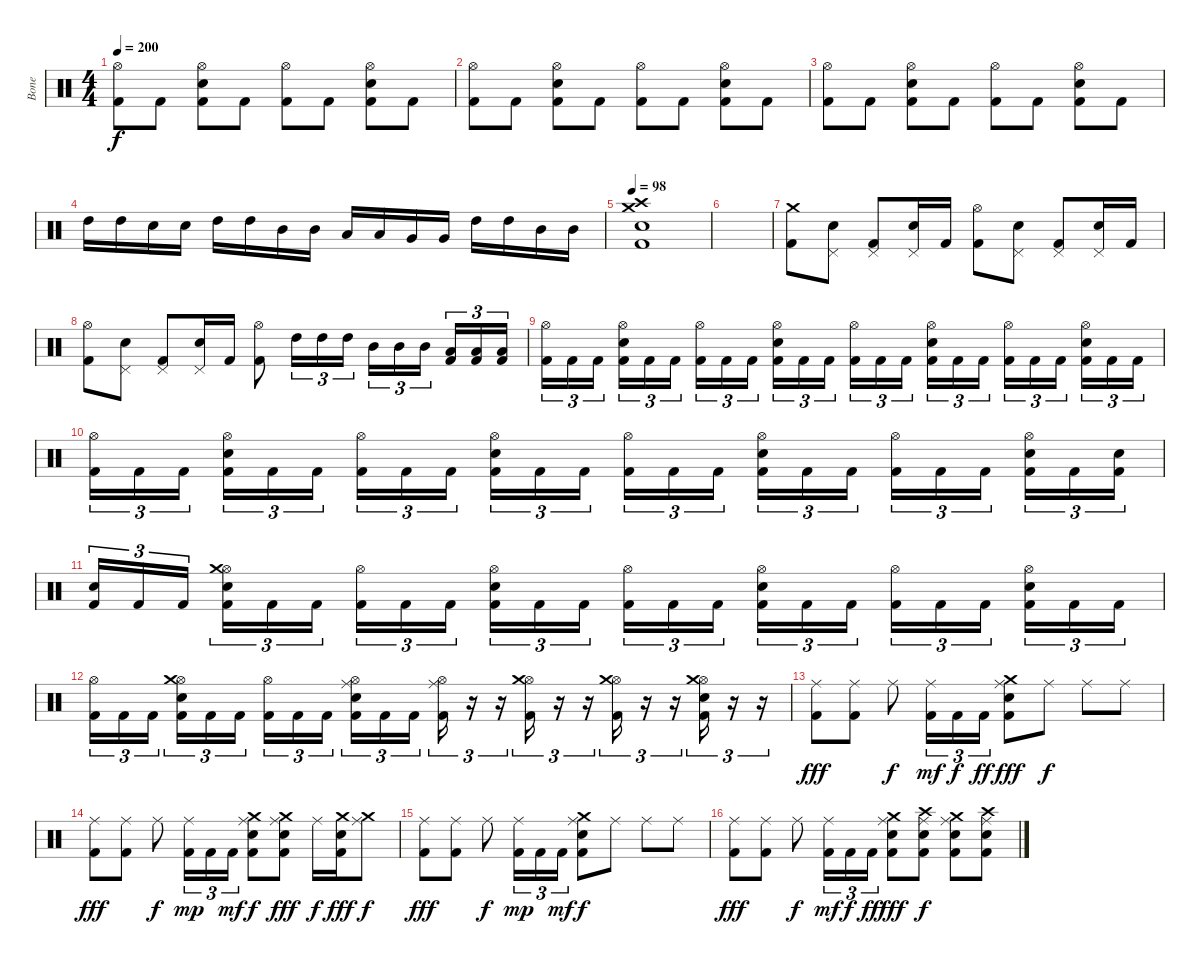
\track ("Bone " "Bone ") {instrument percussion}
\staff {score}
\articulation defaults
\ts (4 4)
\tempo 200
\clef neutral
\ks c
("Hi-Hat (open)" "Kick (hit) 2").8{dy f} "Kick (hit) 2".8 ("Hi-Hat (open)" "Electric Snare (hit)" "Kick (hit) 2").8 "Kick (hit) 2".8 ("Hi-Hat (open)" "Kick (hit) 2").8 "Kick (hit) 2".8 ("Hi-Hat (open)" "Electric Snare (hit)" "Kick (hit) 2").8 "Kick (hit) 2".8 |
("Hi-Hat (open)" "Kick (hit) 2").8 "Kick (hit) 2".8 ("Hi-Hat (open)" "Electric Snare (hit)" "Kick (hit) 2").8 "Kick (hit) 2".8 ("Hi-Hat (open)" "Kick (hit) 2").8 "Kick (hit) 2".8 ("Hi-Hat (open)" "Electric Snare (hit)" "Kick (hit) 2").8 "Kick (hit) 2".8 |
("Hi-Hat (open)" "Kick (hit) 2").8 "Kick (hit) 2".8 ("Hi-Hat (open)" "Electric Snare (hit)" "Kick (hit) 2").8 "Kick (hit) 2".8 ("Hi-Hat (open)" "Kick (hit) 2").8 "Kick (hit) 2".8 ("Hi-Hat (open)" "Electric Snare (hit)" "Kick (hit) 2").8 "Kick (hit) 2".8 |
"High Tom (hit)".16 "High Tom (hit)".16 "Electric Snare (hit)".16 "Electric Snare (hit)".16 "High Tom (hit)".16 "High Tom (hit)".16 "Mid Tom (hit)".16 "Mid Tom (hit)".16 "Low Tom (hit)".16 "Low Tom (hit)".16 "Very Low Tom (hit)".16 "Very Low Tom (hit)".16 "High Tom (hit)".16 "High Tom (hit)".16 "Mid Tom (hit)".16 "Mid Tom (hit)".16 |
\tempo 98
("Crash medium (hit)" "Crash high (hit)" "Electric Snare (hit)" "Kick (hit) 2").1 |
|
("Crash medium (hit)" "Kick (hit) 2").8 ("Pedal Hi-Hat (hit)" "Electric Snare (hit)").8 ("Pedal Hi-Hat (hit)" "Kick (hit) 2").8 ("Pedal Hi-Hat (hit)" "Electric Snare (hit)").16 "Kick (hit) 2".16 ("Hi-Hat (open)" "Kick (hit) 2").8 ("Pedal Hi-Hat (hit)" "Electric Snare (hit)").8 ("Pedal Hi-Hat (hit)" "Kick (hit) 2").8 ("Pedal Hi-Hat (hit)" "Electric Snare (hit)").16 "Kick (hit) 2".16 |
("Hi-Hat (open)" "Kick (hit) 2").8 ("Pedal Hi-Hat (hit)" "Electric Snare (hit)").8 ("Pedal Hi-Hat (hit)" "Kick (hit) 2").8 ("Pedal Hi-Hat (hit)" "Electric Snare (hit)").16 "Kick (hit) 2".16 ("Hi-Hat (open)" "Kick (hit) 2").8 "High Tom (hit)".16{tu (3 2)} "High Tom (hit)".16{tu (3 2)} "High Tom (hit)".16{tu (3 2)} "Mid Tom (hit)".16{tu (3 2)} "Mid Tom (hit)".16{tu (3 2)} "Mid Tom (hit)".16{tu (3 2) beam splitsecondary} ("Low Tom (hit)" "Kick (hit) 2").16{tu (3 2)} ("Low Tom (hit)" "Kick (hit) 2").16{tu (3 2)} ("Low Tom (hit)" "Kick (hit) 2").16{tu (3 2)} |
("Hi-Hat (open)" "Kick (hit) 2").16{tu (3 2)} "Kick (hit) 2".16{tu (3 2)} "Kick (hit) 2".16{tu (3 2) beam splitsecondary} ("Hi-Hat (open)" "Snare (hit) 2" "Kick (hit) 2").16{tu (3 2)} "Kick (hit) 2".16{tu (3 2)} "Kick (hit) 2".16{tu (3 2)} ("Hi-Hat (open)" "Kick (hit) 2").16{tu (3 2)} "Kick (hit) 2".16{tu (3 2)} "Kick (hit) 2".16{tu (3 2) beam splitsecondary} ("Hi-Hat (open)" "Snare (hit) 2" "Kick (hit) 2").16{tu (3 2)} "Kick (hit) 2".16{tu (3 2)} "Kick (hit) 2".16{tu (3 2)} ("Hi-Hat (open)" "Kick (hit) 2").16{tu (3 2)} "Kick (hit) 2".16{tu (3 2)} "Kick (hit) 2".16{tu (3 2) beam splitsecondary} ("Hi-Hat (open)" "Snare (hit) 2" "Kick (hit) 2").16{tu (3 2)} "Kick (hit) 2".16{tu (3 2)} "Kick (hit) 2".16{tu (3 2)} ("Hi-Hat (open)" "Kick (hit) 2").16{tu (3 2)} "Kick (hit) 2".16{tu (3 2)} "Kick (hit) 2".16{tu (3 2) beam splitsecondary} ("Hi-Hat (open)" "Snare (hit) 2" "Kick (hit) 2").16{tu (3 2)} "Kick (hit) 2".16{tu (3 2)} "Kick (hit) 2".16{tu (3 2)} |
("Hi-Hat (open)" "Kick (hit) 2").16{tu (3 2)} "Kick (hit) 2".16{tu (3 2)} "Kick (hit) 2".16{tu (3 2) beam splitsecondary} ("Hi-Hat (open)" "Snare (hit) 2" "Kick (hit) 2").16{tu (3 2)} "Kick (hit) 2".16{tu (3 2)} "Kick (hit) 2".16{tu (3 2)} ("Hi-Hat (open)" "Kick (hit) 2").16{tu (3 2)} "Kick (hit) 2".16{tu (3 2)} "Kick (hit) 2".16{tu (3 2) beam splitsecondary} ("Hi-Hat (open)" "Snare (hit) 2" "Kick (hit) 2").16{tu (3 2)} "Kick (hit) 2".16{tu (3 2)} "Kick (hit) 2".16{tu (3 2)} ("Hi-Hat (open)" "Kick (hit) 2").16{tu (3 2)} "Kick (hit) 2".16{tu (3 2)} "Kick (hit) 2".16{tu (3 2) beam splitsecondary} ("Hi-Hat (open)" "Snare (hit) 2" "Kick (hit) 2").16{tu (3 2)} "Kick (hit) 2".16{tu (3 2)} "Kick (hit) 2".16{tu (3 2)} ("Hi-Hat (open)" "Kick (hit) 2").16{tu (3 2)} "Kick (hit) 2".16{tu (3 2)} "Kick (hit) 2".16{tu (3 2) beam splitsecondary} ("Hi-Hat (open)" "Snare (hit) 2" "Kick (hit) 2").16{tu (3 2)} "Kick (hit) 2".16{tu (3 2)} ("Snare (hit) 2" "Kick (hit) 2").16{tu (3 2)} |
("Snare (hit) 2" "Kick (hit) 2").16{tu (3 2)} "Kick (hit) 2".16{tu (3 2)} "Kick (hit) 2".16{tu (3 2) beam splitsecondary} ("Hi-Hat (open)" "Crash medium (hit)" "Snare (hit) 2" "Kick (hit) 2").16{tu (3 2)} "Kick (hit) 2".16{tu (3 2)} "Kick (hit) 2".16{tu (3 2)} ("Hi-Hat (open)" "Kick (hit) 2").16{tu (3 2)} "Kick (hit) 2".16{tu (3 2)} "Kick (hit) 2".16{tu (3 2) beam splitsecondary} ("Hi-Hat (open)" "Snare (hit) 2" "Kick (hit) 2").16{tu (3 2)} "Kick (hit) 2".16{tu (3 2)} "Kick (hit) 2".16{tu (3 2)} ("Hi-Hat (open)" "Kick (hit) 2").16{tu (3 2)} "Kick (hit) 2".16{tu (3 2)} "Kick (hit) 2".16{tu (3 2) beam splitsecondary} ("Hi-Hat (open)" "Snare (hit) 2" "Kick (hit) 2").16{tu (3 2)} "Kick (hit) 2".16{tu (3 2)} "Kick (hit) 2".16{tu (3 2)} ("Hi-Hat (open)" "Kick (hit) 2").16{tu (3 2)} "Kick (hit) 2".16{tu (3 2)} "Kick (hit) 2".16{tu (3 2) beam splitsecondary} ("Hi-Hat (open)" "Snare (hit) 2" "Kick (hit) 2").16{tu (3 2)} "Kick (hit) 2".16{tu (3 2)} "Kick (hit) 2".16{tu (3 2)} |
("Hi-Hat (open)" "Kick (hit) 2").16{tu (3 2)} "Kick (hit) 2".16{tu (3 2)} "Kick (hit) 2".16{tu (3 2) beam splitsecondary} ("Hi-Hat (open)" "Crash medium (hit)" "Snare (hit) 2" "Kick (hit) 2").16{tu (3 2)} "Kick (hit) 2".16{tu (3 2)} "Kick (hit) 2".16{tu (3 2)} ("Hi-Hat (open)" "Kick (hit) 2").16{tu (3 2)} "Kick (hit) 2".16{tu (3 2)} "Kick (hit) 2".16{tu (3 2) beam splitsecondary} ("Hi-Hat (open)" "Ride (middle)" "Snare (hit) 2" "Kick (hit) 2").16{tu (3 2)} "Kick (hit) 2".16{tu (3 2)} "Kick (hit) 2".16{tu (3 2)} ("Hi-Hat (open)" "Ride (middle)" "Kick (hit) 2").16{tu (3 2)} r.16{tu (3 2)} r.16{tu (3 2)} ("Hi-Hat (open)" "Crash medium (hit)" "Kick (hit) 2").16{tu (3 2)} r.16{tu (3 2)} r.16{tu (3 2)} ("Hi-Hat (open)" "Crash medium (hit)" "Kick (hit) 2").16{tu (3 2)} r.16{tu (3 2)} r.16{tu (3 2)} ("Hi-Hat (open)" "Crash medium (hit)" "Snare (hit) 2" "Kick (hit) 2").16{tu (3 2)} r.16{tu (3 2)} r.16{tu (3 2)} |
("Ride (middle)" "Kick (hit) 2").8{dy fff} ("Ride (middle)" "Kick (hit) 2").8 "Ride (middle)".8{dy f} ("Ride (middle)" "Kick (hit) 2").16{tu (3 2) dy mf} "Kick (hit) 2".16{tu (3 2) dy f} "Kick (hit) 2".16{tu (3 2) dy ff} ("Ride (middle)" "Crash medium (hit)" "Electric Snare (hit)" "Kick (hit) 2").8{dy fff} "Ride (middle)".8{dy f} "Ride (middle)".8 "Ride (middle)".8 |
("Ride (middle)" "Kick (hit) 2").8{dy fff} ("Ride (middle)" "Kick (hit) 2").8 "Ride (middle)".8{dy f} ("Ride (middle)" "Kick (hit) 2").16{tu (3 2) dy mp} "Kick (hit) 2".16{tu (3 2)} "Kick (hit) 2".16{tu (3 2) dy mf} ("Ride (middle)" "Crash medium (hit)" "Electric Snare (hit)" "Kick (hit) 2").8{dy f} ("Ride (middle)" "Crash medium (hit)" "Snare (hit) 2" "Kick (hit) 2").8{dy fff} "Ride (middle)".16{dy f} ("Crash medium (hit)" "Snare (hit) 2" "Kick (hit) 2").16{dy fff} ("Ride (middle)" "Crash medium (hit)").8{dy f} |
("Ride (middle)" "Kick (hit) 2").8{dy fff} ("Ride (middle)" "Kick (hit) 2").8 "Ride (middle)".8{dy f} ("Ride (middle)" "Kick (hit) 2").16{tu (3 2) dy mp} "Kick (hit) 2".16{tu (3 2)} "Kick (hit) 2".16{tu (3 2) dy mf} ("Ride (middle)" "Crash medium (hit)" "Electric Snare (hit)" "Kick (hit) 2").8{dy f} "Ride (middle)".8 "Ride (middle)".8 "Ride (middle)".8 |
("Ride (middle)" "Kick (hit) 2").8{dy fff} ("Ride (middle)" "Kick (hit) 2").8 "Ride (middle)".8{dy f} ("Ride (middle)" "Kick (hit) 2").16{tu (3 2) dy mf} "Kick (hit) 2".16{tu (3 2) dy f} "Kick (hit) 2".16{tu (3 2) dy ff} ("Ride (middle)" "Crash medium (hit)" "Electric Snare (hit)" "Kick (hit) 2").8{dy fff} ("Ride (middle)" "Crash high (hit)" "Electric Snare (hit)" "Kick (hit) 2").8{dy f} ("Ride (middle)" "Crash medium (hit)" "Electric Snare (hit)" "Kick (hit) 2").8 ("Ride (middle)" "Crash high (hit)" "Electric Snare (hit)" "Kick (hit) 2").8
